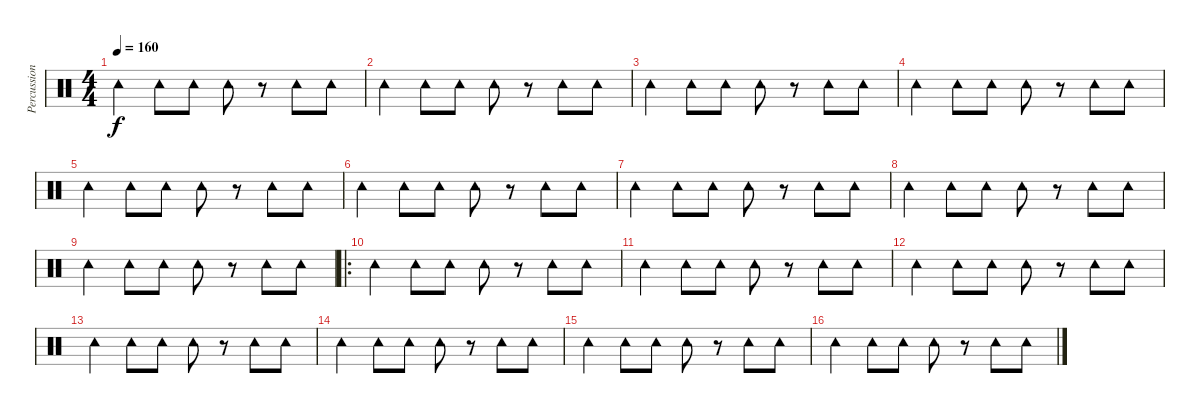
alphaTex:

\track ("Percussions" "Percussion") {instrument percussion}
\staff {score}
\articulation defaults
\ts (4 4)
\tempo 160
\clef neutral
\ks c "Tambourine (hit)".4{dy f} "Tambourine (hit)".8 "Tambourine (hit)".8 "Tambourine (hit)".8
r.8 "Tambourine (hit)".8 "Tambourine (hit)".8 |
"Tambourine (hit)".4 "Tambourine (hit)".8 "Tambourine (hit)".8 "Tambourine (hit)".8 r.8 "Tambourine (hit)".8 "Tambourine (hit)".8 |
"Tambourine (hit)".4 "Tambourine (hit)".8 "Tambourine (hit)".8 "Tambourine (hit)".8 r.8 "Tambourine (hit)".8 "Tambourine (hit)".8 |
"Tambourine (hit)".4 "Tambourine (hit)".8 "Tambourine (hit)".8 "Tambourine (hit)".8 r.8 "Tambourine (hit)".8 "Tambourine (hit)".8 |
"Tambourine (hit)".4 "Tambourine (hit)".8 "Tambourine (hit)".8 "Tambourine (hit)".8 r.8 "Tambourine (hit)".8 "Tambourine (hit)".8 |
"Tambourine (hit)".4 "Tambourine (hit)".8 "Tambourine (hit)".8 "Tambourine (hit)".8 r.8 "Tambourine (hit)".8 "Tambourine (hit)".8 |
"Tambourine (hit)".4 "Tambourine (hit)".8 "Tambourine (hit)".8 "Tambourine (hit)".8 r.8 "Tambourine (hit)".8 "Tambourine (hit)".8 |
"Tambourine (hit)".4 "Tambourine (hit)".8 "Tambourine (hit)".8 "Tambourine (hit)".8 r.8 "Tambourine (hit)".8 "Tambourine (hit)".8 |
"Tambourine (hit)".4 "Tambourine (hit)".8 "Tambourine (hit)".8 "Tambourine (hit)".8 r.8 "Tambourine (hit)".8 "Tambourine (hit)".8 |
\ro "Tambourine (hit)".4 "Tambourine (hit)".8 "Tambourine (hit)".8 "Tambourine (hit)".8
r.8 "Tambourine (hit)".8 "Tambourine (hit)".8 |
"Tambourine (hit)".4 "Tambourine (hit)".8 "Tambourine (hit)".8 "Tambourine (hit)".8 r.8 "Tambourine (hit)".8 "Tambourine (hit)".8 |
"Tambourine (hit)".4 "Tambourine (hit)".8 "Tambourine (hit)".8 "Tambourine (hit)".8 r.8 "Tambourine (hit)".8 "Tambourine (hit)".8 |
"Tambourine (hit)".4 "Tambourine (hit)".8 "Tambourine (hit)".8 "Tambourine (hit)".8 r.8 "Tambourine (hit)".8 "Tambourine (hit)".8 |
"Tambourine (hit)".4 "Tambourine (hit)".8 "Tambourine (hit)".8 "Tambourine (hit)".8 r.8 "Tambourine (hit)".8 "Tambourine (hit)".8 |
"Tambourine (hit)".4 "Tambourine (hit)".8 "Tambourine (hit)".8 "Tambourine (hit)".8 r.8 "Tambourine (hit)".8 "Tambourine (hit)".8 |
"Tambourine (hit)".4 "Tambourine (hit)".8 "Tambourine (hit)".8 "Tambourine (hit)".8 r.8 "Tambourine (hit)".8 "Tambourine (hit)".8
